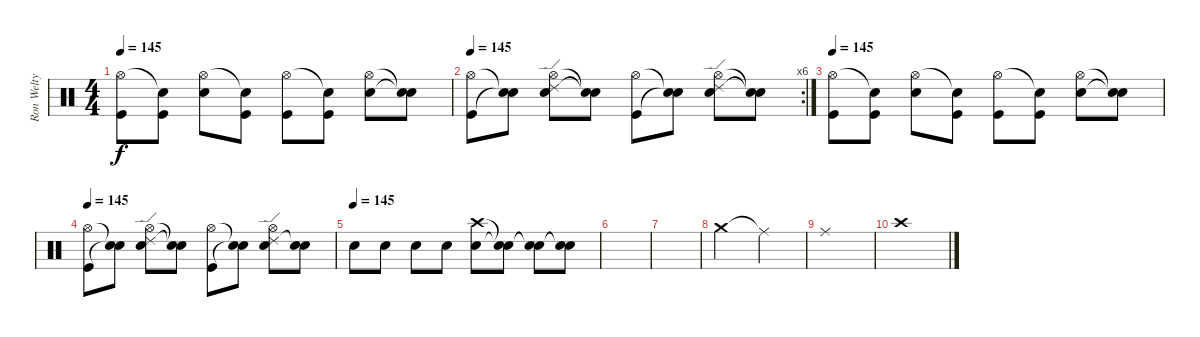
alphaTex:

\track ("Ron Welty" "Ron Welty") {instrument percussion}
\staff {score}
\articulation defaults
\ts (4 4)
\tempo 145
\clef neutral
\ks c
("Hi-Hat (open)" "Kick (hit)").8{dy f} ("Snare (hit)"{t} "Kick (hit)").8 ("Hi-Hat (open)" "Snare (hit) 2").8 ("Snare (hit)"{t} "Kick (hit)").8 ("Hi-Hat (open)" "Kick (hit)").8 ("Snare (hit)"{t} "Kick (hit)").8 ("Hi-Hat (open)" "Snare (hit) 2").8 ("Snare (hit)"{t} "Snare (hit)"{t}).8 |
\rc 6
\tempo 145
("Hi-Hat (open)" "Kick (hit)").8 ("Snare (hit)"{t} "Snare (hit)"{t}).8 ("Ride (edge) 2" "Hi-Hat (open)" "Snare (hit) 2").8 ("Snare (hit)"{t} "Snare (hit)"{t}).8 ("Hi-Hat (open)" "Kick (hit)").8 ("Snare (hit)"{t} "Snare (hit)"{t}).8 ("Ride (edge) 2" "Hi-Hat (open)" "Snare (hit) 2").8 ("Snare (hit)"{t} "Snare (hit)"{t}).8 |
\tempo 145
("Hi-Hat (open)" "Kick (hit)").8 ("Snare (hit)"{t} "Kick (hit)").8 ("Hi-Hat (open)" "Snare (hit) 2").8 ("Snare (hit)"{t} "Kick (hit)").8 ("Hi-Hat (open)" "Kick (hit)").8 ("Snare (hit)"{t} "Kick (hit)").8 ("Hi-Hat (open)" "Snare (hit) 2").8 ("Snare (hit)"{t} "Snare (hit)"{t}).8 |
\tempo 145
("Hi-Hat (open)" "Kick (hit)").8 ("Snare (hit)"{t} "Snare (hit)"{t}).8 ("Ride (edge) 2" "Hi-Hat (open)" "Snare (hit) 2").8 ("Snare (hit)"{t} "Snare (hit)"{t}).8 ("Hi-Hat (open)" "Kick (hit)").8 ("Snare (hit)"{t} "Snare (hit)"{t}).8 ("Ride (edge) 2" "Hi-Hat (open)" "Snare (hit) 2").8 ("Snare (hit)"{t} "Snare (hit) 2").8 |
\tempo (145)
"Snare (hit) 2".8 "Snare (hit) 2".8 "Snare (hit) 2".8 "Snare (hit) 2".8 ("Crash high (hit)" "Snare (hit) 2").8 ("Snare (hit)"{t} "Snare (hit)"{t}).8 ("Snare (hit)"{t} "Snare (hit)"{t}).8 ("Snare (hit)"{t} "Snare (hit)"{t}).8 |
|
|
"Crash medium (hit)".2 "Ride (middle)"{t}.2 |
"Ride (middle)".1 |
"Crash high (hit)".1
